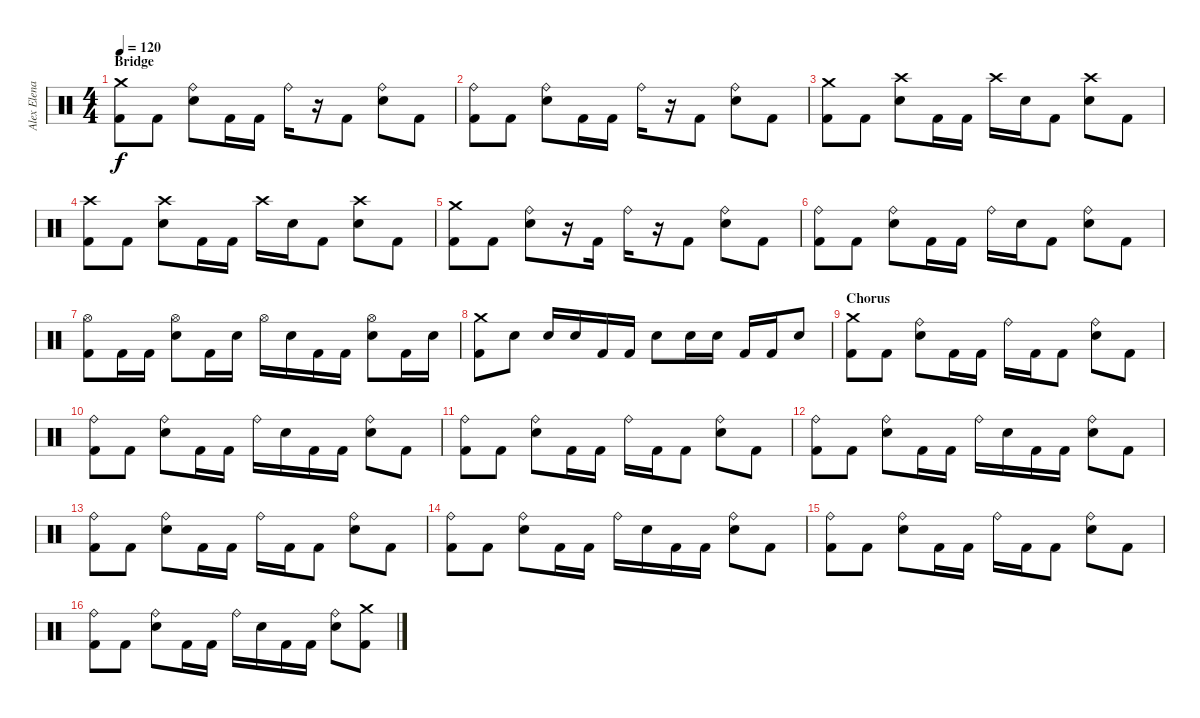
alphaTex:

\track ("Alex Elena (Percussion)" "Alex Elena") {instrument percussion}
\staff {score}
\articulation defaults
\ts (4 4)
\section ("" "Bridge")
\tempo 120
\clef neutral
\ks c
("Crash medium (hit)" "Kick (hit) 2").8{dy f} "Kick (hit) 2".8 ("Ride (bell)" "Snare (hit) 2").8 "Kick (hit) 2".16 "Kick (hit) 2".16 "Ride (bell)".16 r.16 "Kick (hit) 2".8 ("Ride (bell)" "Snare (hit) 2").8 "Kick (hit) 2".8 |
("Ride (bell)" "Kick (hit) 2").8 "Kick (hit) 2".8 ("Ride (bell)" "Snare (hit) 2").8 "Kick (hit) 2".16 "Kick (hit) 2".16 "Ride (bell)".16 r.16 "Kick (hit) 2".8 ("Ride (bell)" "Snare (hit) 2").8 "Kick (hit) 2".8 |
("Crash medium (hit)" "Kick (hit) 2").8 "Kick (hit) 2".8 ("Crash high (hit)" "Snare (hit) 2").8 "Kick (hit) 2".16 "Kick (hit) 2".16 "Crash high (hit)".16 "Snare (hit) 2".16 "Kick (hit) 2".8 ("Crash high (hit)" "Snare (hit) 2").8 "Kick (hit) 2".8 |
("Crash high (hit)" "Kick (hit) 2").8 "Kick (hit) 2".8 ("Crash high (hit)" "Snare (hit) 2").8 "Kick (hit) 2".16 "Kick (hit) 2".16 "Crash high (hit)".16 "Snare (hit) 2".16 "Kick (hit) 2".8 ("Crash high (hit)" "Snare (hit) 2").8 "Kick (hit) 2".8 |
("Crash medium (hit)" "Kick (hit) 2").8 "Kick (hit) 2".8 ("Ride (bell)" "Snare (hit) 2").8 r.16 "Kick (hit) 2".16 "Ride (bell)".16 r.16 "Kick (hit) 2".8 ("Ride (bell)" "Snare (hit) 2").8 "Kick (hit) 2".8 |
("Ride (bell)" "Kick (hit) 2").8 "Kick (hit) 2".8 ("Ride (bell)" "Snare (hit) 2").8 "Kick (hit) 2".16 "Kick (hit) 2".16 "Ride (bell)".16 "Snare (hit) 2".16 "Kick (hit) 2".8 ("Ride (bell)" "Snare (hit) 2").8 "Kick (hit) 2".8 |
("Hi-Hat (open)" "Kick (hit) 2").8 "Kick (hit) 2".16 "Kick (hit) 2".16 ("Hi-Hat (open)" "Snare (hit) 2").8 "Kick (hit) 2".16 "Snare (hit) 2".16 "Hi-Hat (open)".16 "Snare (hit) 2".16 "Kick (hit) 2".16 "Kick (hit) 2".16 ("Hi-Hat (open)" "Snare (hit) 2").8 "Kick (hit) 2".16 "Snare (hit) 2".16 |
("Crash medium (hit)" "Kick (hit) 2").8 "Snare (hit) 2".8 "Snare (hit) 2".16 "Snare (hit) 2".16 "Kick (hit) 2".16 "Kick (hit) 2".16 "Snare (hit) 2".8 "Snare (hit) 2".16 "Snare (hit) 2".16 "Kick (hit) 2".16 "Kick (hit) 2".16 "Snare (hit) 2".8 |
\section ("" "Chorus")
("Crash medium (hit)" "Kick (hit) 2").8 "Kick (hit) 2".8 ("Ride (bell)" "Snare (hit) 2").8 "Kick (hit) 2".16 "Kick (hit) 2".16 "Ride (bell)".16 "Kick (hit) 2".16 "Kick (hit) 2".8 ("Ride (bell)" "Snare (hit) 2").8 "Kick (hit) 2".8 |
("Ride (bell)" "Kick (hit) 2").8 "Kick (hit) 2".8 ("Ride (bell)" "Snare (hit) 2").8 "Kick (hit) 2".16 "Kick (hit) 2".16 "Ride (bell)".16 "Snare (hit) 2".16 "Kick (hit) 2".16 "Kick (hit) 2".16 ("Ride (bell)" "Snare (hit) 2").8 "Kick (hit) 2".8 |
("Ride (bell)" "Kick (hit) 2").8 "Kick (hit) 2".8 ("Ride (bell)" "Snare (hit) 2").8 "Kick (hit) 2".16 "Kick (hit) 2".16 "Ride (bell)".16 "Kick (hit) 2".16 "Kick (hit) 2".8 ("Ride (bell)" "Snare (hit) 2").8 "Kick (hit) 2".8 |
("Ride (bell)" "Kick (hit) 2").8 "Kick (hit) 2".8 ("Ride (bell)" "Snare (hit) 2").8 "Kick (hit) 2".16 "Kick (hit) 2".16 "Ride (bell)".16 "Snare (hit) 2".16 "Kick (hit) 2".16 "Kick (hit) 2".16 ("Ride (bell)" "Snare (hit) 2").8 "Kick (hit) 2".8 |
("Ride (bell)" "Kick (hit) 2").8 "Kick (hit) 2".8 ("Ride (bell)" "Snare (hit) 2").8 "Kick (hit) 2".16 "Kick (hit) 2".16 "Ride (bell)".16 "Kick (hit) 2".16 "Kick (hit) 2".8 ("Ride (bell)" "Snare (hit) 2").8 "Kick (hit) 2".8 |
("Ride (bell)" "Kick (hit) 2").8 "Kick (hit) 2".8 ("Ride (bell)" "Snare (hit) 2").8 "Kick (hit) 2".16 "Kick (hit) 2".16 "Ride (bell)".16 "Snare (hit) 2".16 "Kick (hit) 2".16 "Kick (hit) 2".16 ("Ride (bell)" "Snare (hit) 2").8 "Kick (hit) 2".8 |
("Ride (bell)" "Kick (hit) 2").8 "Kick (hit) 2".8 ("Ride (bell)" "Snare (hit) 2").8 "Kick (hit) 2".16 "Kick (hit) 2".16 "Ride (bell)".16 "Kick (hit) 2".16 "Kick (hit) 2".8 ("Ride (bell)" "Snare (hit) 2").8 "Kick (hit) 2".8 |
("Ride (bell)" "Kick (hit) 2").8 "Kick (hit) 2".8 ("Ride (bell)" "Snare (hit) 2").8 "Kick (hit) 2".16 "Kick (hit) 2".16 "Ride (bell)".16 "Snare (hit) 2".16 "Kick (hit) 2".16 "Kick (hit) 2".16 ("Ride (bell)" "Snare (hit) 2").8 ("Crash medium (hit)" "Kick (hit) 2").8
